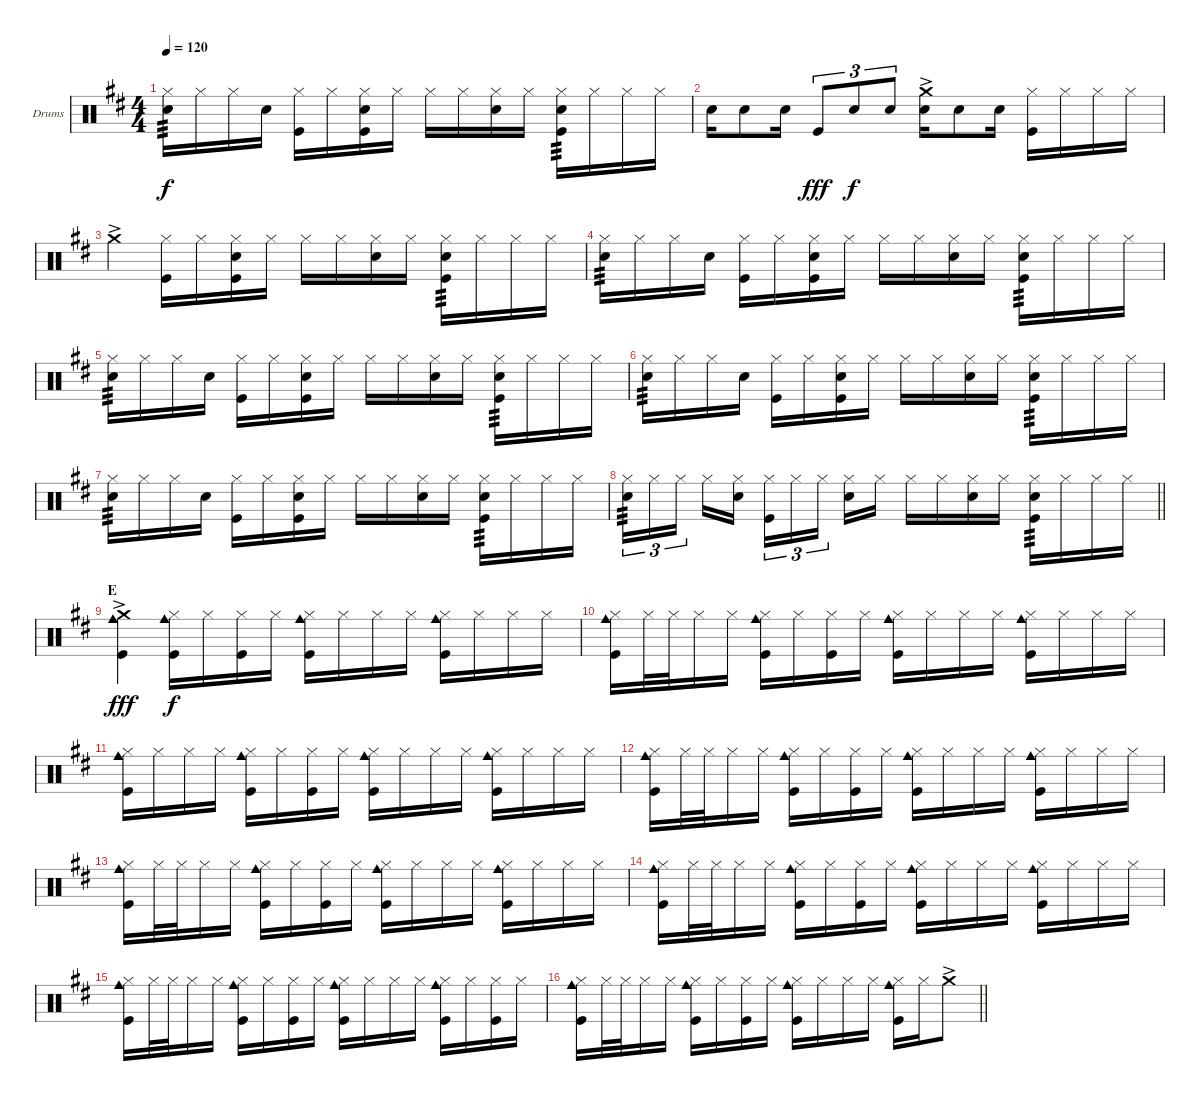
\bracketExtendMode groupsimilarinstruments
\firstSystemTrackNameOrientation horizontal
\otherSystemsTrackNameOrientation horizontal
\track ("Drumkit" "Drums") {instrument percussion}
\staff {score}
\articulation defaults
\ts (4 4)
\tempo 120
\clef neutral
\ks d
("Hi-Hat (closed)" "Snare (hit) 2").16{tp 3 dy f} "Hi-Hat (closed)".16 "Hi-Hat (closed)".16 "Snare (hit) 2".16 ("Hi-Hat (closed)" "Kick (hit)").16 "Hi-Hat (closed)".16 ("Hi-Hat (closed)" "Snare (hit) 2" "Kick (hit)").16 "Hi-Hat (closed)".16 "Hi-Hat (closed)".16 "Hi-Hat (closed)".16 ("Hi-Hat (closed)" "Snare (hit) 2").16 "Hi-Hat (closed)".16 ("Hi-Hat (closed)" "Snare (hit) 2" "Kick (hit)").16{tp 3} "Hi-Hat (closed)".16 "Hi-Hat (closed)".16 "Hi-Hat (closed)".16 |
"Snare (hit) 2".16 "Snare (hit) 2".8 "Snare (hit) 2".16 "Kick (hit)".8{tu (3 2) dy fff} "Snare (hit) 2".8{tu (3 2) dy f} "Snare (hit) 2".8{tu (3 2)} ("Crash medium (hit)"{ac} "Snare (hit) 2").16 "Snare (hit) 2".8 "Snare (hit) 2".16 ("Hi-Hat (closed)" "Kick (hit)").16 "Hi-Hat (closed)".16 "Hi-Hat (closed)".16 "Hi-Hat (closed)".16 |
"Crash medium (hit)"{ac}.4 ("Hi-Hat (closed)" "Kick (hit)").16 "Hi-Hat (closed)".16 ("Hi-Hat (closed)" "Snare (hit) 2" "Kick (hit)").16 "Hi-Hat (closed)".16 "Hi-Hat (closed)".16 "Hi-Hat (closed)".16 ("Hi-Hat (closed)" "Snare (hit) 2").16 "Hi-Hat (closed)".16 ("Hi-Hat (closed)" "Snare (hit) 2" "Kick (hit)").16{tp 3} "Hi-Hat (closed)".16 "Hi-Hat (closed)".16 "Hi-Hat (closed)".16 |
("Hi-Hat (closed)" "Snare (hit) 2").16{tp 3} "Hi-Hat (closed)".16 "Hi-Hat (closed)".16 "Snare (hit) 2".16 ("Hi-Hat (closed)" "Kick (hit)").16 "Hi-Hat (closed)".16 ("Hi-Hat (closed)" "Snare (hit) 2" "Kick (hit)").16 "Hi-Hat (closed)".16 "Hi-Hat (closed)".16 "Hi-Hat (closed)".16 ("Hi-Hat (closed)" "Snare (hit) 2").16 "Hi-Hat (closed)".16 ("Hi-Hat (closed)" "Snare (hit) 2" "Kick (hit)").16{tp 3} "Hi-Hat (closed)".16 "Hi-Hat (closed)".16 "Hi-Hat (closed)".16 |
("Hi-Hat (closed)" "Snare (hit) 2").16{tp 3} "Hi-Hat (closed)".16 "Hi-Hat (closed)".16 "Snare (hit) 2".16 ("Hi-Hat (closed)" "Kick (hit)").16 "Hi-Hat (closed)".16 ("Hi-Hat (closed)" "Snare (hit) 2" "Kick (hit)").16 "Hi-Hat (closed)".16 "Hi-Hat (closed)".16 "Hi-Hat (closed)".16 ("Hi-Hat (closed)" "Snare (hit) 2").16 "Hi-Hat (closed)".16 ("Hi-Hat (closed)" "Snare (hit) 2" "Kick (hit)").16{tp 3} "Hi-Hat (closed)".16 "Hi-Hat (closed)".16 "Hi-Hat (closed)".16 |
("Hi-Hat (closed)" "Snare (hit) 2").16{tp 3} "Hi-Hat (closed)".16 "Hi-Hat (closed)".16 "Snare (hit) 2".16 ("Hi-Hat (closed)" "Kick (hit)").16 "Hi-Hat (closed)".16 ("Hi-Hat (closed)" "Snare (hit) 2" "Kick (hit)").16 "Hi-Hat (closed)".16 "Hi-Hat (closed)".16 "Hi-Hat (closed)".16 ("Hi-Hat (closed)" "Snare (hit) 2").16 "Hi-Hat (closed)".16 ("Hi-Hat (closed)" "Snare (hit) 2" "Kick (hit)").16{tp 3} "Hi-Hat (closed)".16 "Hi-Hat (closed)".16 "Hi-Hat (closed)".16 |
("Hi-Hat (closed)" "Snare (hit) 2").16{tp 3} "Hi-Hat (closed)".16 "Hi-Hat (closed)".16 "Snare (hit) 2".16 ("Hi-Hat (closed)" "Kick (hit)").16 "Hi-Hat (closed)".16 ("Hi-Hat (closed)" "Snare (hit) 2" "Kick (hit)").16 "Hi-Hat (closed)".16 "Hi-Hat (closed)".16 "Hi-Hat (closed)".16 ("Hi-Hat (closed)" "Snare (hit) 2").16 "Hi-Hat (closed)".16 ("Hi-Hat (closed)" "Snare (hit) 2" "Kick (hit)").16{tp 3} "Hi-Hat (closed)".16 "Hi-Hat (closed)".16 "Hi-Hat (closed)".16 |
\barLineRight lightlight
("Hi-Hat (closed)" "Snare (hit) 2").16{tu (3 2) tp 3} "Hi-Hat (closed)".16{tu (3 2)} "Hi-Hat (closed)".16{tu (3 2)} "Hi-Hat (closed)".16 ("Hi-Hat (closed)" "Snare (hit) 2").16 ("Hi-Hat (closed)" "Kick (hit)").16{tu (3 2)} "Hi-Hat (closed)".16{tu (3 2)} "Hi-Hat (closed)".16{tu (3 2)} ("Hi-Hat (closed)" "Snare (hit) 2").16 "Hi-Hat (closed)".16 "Hi-Hat (closed)".16 "Hi-Hat (closed)".16 ("Hi-Hat (closed)" "Snare (hit) 2").16 "Hi-Hat (closed)".16 ("Hi-Hat (closed)" "Snare (hit) 2" "Kick (hit)").16{tp 3} "Hi-Hat (closed)".16 "Hi-Hat (closed)".16 "Hi-Hat (closed)".16 |
\section ("" "E")
("Crash medium (hit)"{ac} "Kick (hit)" "Cowbell medium (hit)").4{dy fff} ("Hi-Hat (closed)" "Kick (hit)" "Cowbell medium (hit)").16{dy f} "Hi-Hat (closed)".16 ("Hi-Hat (closed)" "Kick (hit)").16 "Hi-Hat (closed)".16 ("Hi-Hat (closed)" "Kick (hit)" "Cowbell medium (hit)").16 "Hi-Hat (closed)".16 "Hi-Hat (closed)".16 "Hi-Hat (closed)".16 ("Hi-Hat (closed)" "Kick (hit)" "Cowbell medium (hit)").16 "Hi-Hat (closed)".16 "Hi-Hat (closed)".16 "Hi-Hat (closed)".16 |
("Hi-Hat (closed)" "Kick (hit)" "Cowbell medium (hit)").16 "Hi-Hat (closed)".32 "Hi-Hat (closed)".32 "Hi-Hat (closed)".16 "Hi-Hat (closed)".16 ("Hi-Hat (closed)" "Kick (hit)" "Cowbell medium (hit)").16 "Hi-Hat (closed)".16 ("Hi-Hat (closed)" "Kick (hit)").16 "Hi-Hat (closed)".16 ("Hi-Hat (closed)" "Kick (hit)" "Cowbell medium (hit)").16 "Hi-Hat (closed)".16 "Hi-Hat (closed)".16 "Hi-Hat (closed)".16 ("Hi-Hat (closed)" "Kick (hit)" "Cowbell medium (hit)").16 "Hi-Hat (closed)".16 "Hi-Hat (closed)".16 "Hi-Hat (closed)".16 |
("Hi-Hat (closed)" "Kick (hit)" "Cowbell medium (hit)").16 "Hi-Hat (closed)".16 "Hi-Hat (closed)".16 "Hi-Hat (closed)".16 ("Hi-Hat (closed)" "Kick (hit)" "Cowbell medium (hit)").16 "Hi-Hat (closed)".16 ("Hi-Hat (closed)" "Kick (hit)").16 "Hi-Hat (closed)".16 ("Hi-Hat (closed)" "Kick (hit)" "Cowbell medium (hit)").16 "Hi-Hat (closed)".16 "Hi-Hat (closed)".16 "Hi-Hat (closed)".16 ("Hi-Hat (closed)" "Kick (hit)" "Cowbell medium (hit)").16 "Hi-Hat (closed)".16 "Hi-Hat (closed)".16 "Hi-Hat (closed)".16 |
("Hi-Hat (closed)" "Kick (hit)" "Cowbell medium (hit)").16 "Hi-Hat (closed)".32 "Hi-Hat (closed)".32 "Hi-Hat (closed)".16 "Hi-Hat (closed)".16 ("Hi-Hat (closed)" "Kick (hit)" "Cowbell medium (hit)").16 "Hi-Hat (closed)".16 ("Hi-Hat (closed)" "Kick (hit)").16 "Hi-Hat (closed)".16 ("Hi-Hat (closed)" "Kick (hit)" "Cowbell medium (hit)").16 "Hi-Hat (closed)".16 "Hi-Hat (closed)".16 "Hi-Hat (closed)".16 ("Hi-Hat (closed)" "Kick (hit)" "Cowbell medium (hit)").16 "Hi-Hat (closed)".16 "Hi-Hat (closed)".16 "Hi-Hat (closed)".16 |
("Hi-Hat (closed)" "Kick (hit)" "Cowbell medium (hit)").16 "Hi-Hat (closed)".32 "Hi-Hat (closed)".32 "Hi-Hat (closed)".16 "Hi-Hat (closed)".16 ("Hi-Hat (closed)" "Kick (hit)" "Cowbell medium (hit)").16 "Hi-Hat (closed)".16 ("Hi-Hat (closed)" "Kick (hit)").16 "Hi-Hat (closed)".16 ("Hi-Hat (closed)" "Kick (hit)" "Cowbell medium (hit)").16 "Hi-Hat (closed)".16 "Hi-Hat (closed)".16 "Hi-Hat (closed)".16 ("Hi-Hat (closed)" "Kick (hit)" "Cowbell medium (hit)").16 "Hi-Hat (closed)".16 "Hi-Hat (closed)".16 "Hi-Hat (closed)".16 |
("Hi-Hat (closed)" "Kick (hit)" "Cowbell medium (hit)").16 "Hi-Hat (closed)".32 "Hi-Hat (closed)".32 "Hi-Hat (closed)".16 "Hi-Hat (closed)".16 ("Hi-Hat (closed)" "Kick (hit)" "Cowbell medium (hit)").16 "Hi-Hat (closed)".16 ("Hi-Hat (closed)" "Kick (hit)").16 "Hi-Hat (closed)".16 ("Hi-Hat (closed)" "Kick (hit)" "Cowbell medium (hit)").16 "Hi-Hat (closed)".16 "Hi-Hat (closed)".16 "Hi-Hat (closed)".16 ("Hi-Hat (closed)" "Kick (hit)" "Cowbell medium (hit)").16 "Hi-Hat (closed)".16 "Hi-Hat (closed)".16 "Hi-Hat (closed)".16 |
("Hi-Hat (closed)" "Kick (hit)" "Cowbell medium (hit)").16 "Hi-Hat (closed)".32 "Hi-Hat (closed)".32 "Hi-Hat (closed)".16 "Hi-Hat (closed)".16 ("Hi-Hat (closed)" "Kick (hit)" "Cowbell medium (hit)").16 "Hi-Hat (closed)".16 ("Hi-Hat (closed)" "Kick (hit)").16 "Hi-Hat (closed)".16 ("Hi-Hat (closed)" "Kick (hit)" "Cowbell medium (hit)").16 "Hi-Hat (closed)".16 "Hi-Hat (closed)".16 "Hi-Hat (closed)".16 ("Hi-Hat (closed)" "Kick (hit)" "Cowbell medium (hit)").16 "Hi-Hat (closed)".16 ("Hi-Hat (closed)" "Kick (hit)").16 "Hi-Hat (closed)".16 |
\barLineRight lightlight
("Hi-Hat (closed)" "Kick (hit)" "Cowbell medium (hit)").16 "Hi-Hat (closed)".32 "Hi-Hat (closed)".32 "Hi-Hat (closed)".16 "Hi-Hat (closed)".16 ("Hi-Hat (closed)" "Kick (hit)" "Cowbell medium (hit)").16 "Hi-Hat (closed)".16 ("Hi-Hat (closed)" "Kick (hit)").16 "Hi-Hat (closed)".16 ("Hi-Hat (closed)" "Kick (hit)" "Cowbell medium (hit)").16 "Hi-Hat (closed)".16 "Hi-Hat (closed)".16 "Hi-Hat (closed)".16 ("Hi-Hat (closed)" "Kick (hit)" "Cowbell medium (hit)").16 "Hi-Hat (closed)".16 "Crash medium (hit)"{ac}.8
